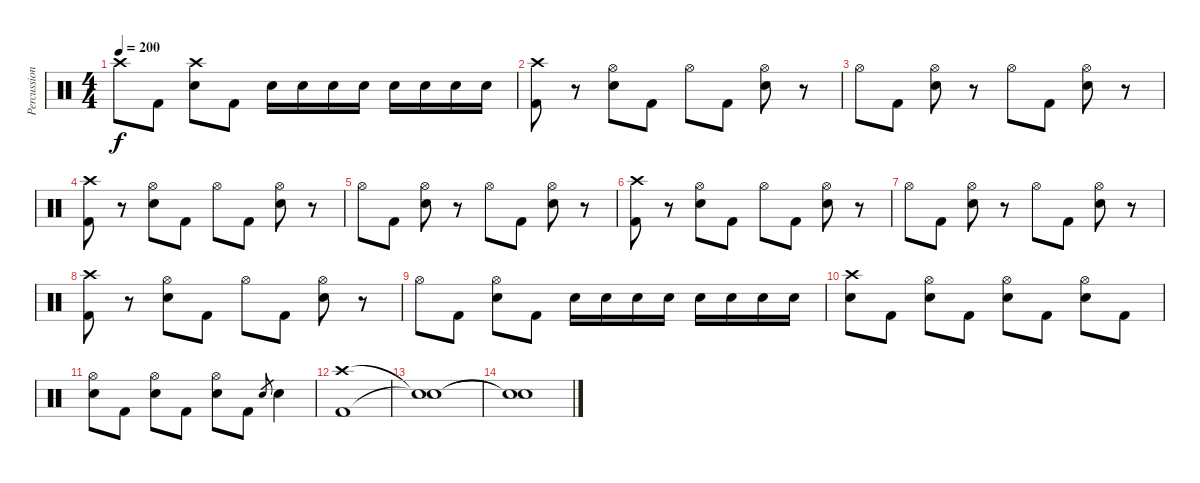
\track ("Percussion" "Percussion") {instrument percussion}
\staff {score}
\articulation defaults
\ts (4 4)
\tempo 200
\clef neutral
\ks c "Crash high (hit)".8{dy f} "Kick (hit) 2".8
("Crash high (hit)" "Electric Snare (hit)").8 "Kick (hit) 2".8 "Electric Snare (hit)".16 "Electric Snare (hit)".16 "Electric Snare (hit)".16 "Electric Snare (hit)".16 "Electric Snare (hit)".16 "Electric Snare (hit)".16 "Electric Snare (hit)".16 "Electric Snare (hit)".16 |
("Crash high (hit)" "Kick (hit) 2").8 r.8 ("Hi-Hat (open)" "Electric Snare (hit)").8 "Kick (hit) 2".8 "Hi-Hat (open)".8 "Kick (hit) 2".8 ("Hi-Hat (open)" "Electric Snare (hit)").8 r.8 |
"Hi-Hat (open)".8 "Kick (hit) 2".8 ("Hi-Hat (open)" "Electric Snare (hit)").8 r.8 "Hi-Hat (open)".8 "Kick (hit) 2".8 ("Hi-Hat (open)" "Electric Snare (hit)").8 r.8 |
("Crash high (hit)" "Kick (hit) 2").8 r.8 ("Hi-Hat (open)" "Electric Snare (hit)").8 "Kick (hit) 2".8 "Hi-Hat (open)".8 "Kick (hit) 2".8 ("Hi-Hat (open)" "Electric Snare (hit)").8 r.8 |
"Hi-Hat (open)".8 "Kick (hit) 2".8 ("Hi-Hat (open)" "Electric Snare (hit)").8 r.8 "Hi-Hat (open)".8 "Kick (hit) 2".8 ("Hi-Hat (open)" "Electric Snare (hit)").8 r.8 |
("Crash high (hit)" "Kick (hit) 2").8 r.8 ("Hi-Hat (open)" "Electric Snare (hit)").8 "Kick (hit) 2".8 "Hi-Hat (open)".8 "Kick (hit) 2".8 ("Hi-Hat (open)" "Electric Snare (hit)").8 r.8 |
"Hi-Hat (open)".8 "Kick (hit) 2".8 ("Hi-Hat (open)" "Electric Snare (hit)").8 r.8 "Hi-Hat (open)".8 "Kick (hit) 2".8 ("Hi-Hat (open)" "Electric Snare (hit)").8 r.8 |
("Crash high (hit)" "Kick (hit) 2").8 r.8 ("Hi-Hat (open)" "Electric Snare (hit)").8 "Kick (hit) 2".8 "Hi-Hat (open)".8 "Kick (hit) 2".8 ("Hi-Hat (open)" "Electric Snare (hit)").8 r.8 |
"Hi-Hat (open)".8 "Kick (hit) 2".8 ("Hi-Hat (open)" "Electric Snare (hit)").8 "Kick (hit) 2".8 "Electric Snare (hit)".16 "Electric Snare (hit)".16 "Electric Snare (hit)".16 "Electric Snare (hit)".16 "Electric Snare (hit)".16 "Electric Snare (hit)".16 "Electric Snare (hit)".16 "Electric Snare (hit)".16 |
("Crash high (hit)" "Electric Snare (hit)").8 "Kick (hit) 2".8 ("Hi-Hat (open)" "Electric Snare (hit)").8 "Kick (hit) 2".8 ("Hi-Hat (open)" "Electric Snare (hit)").8 "Kick (hit) 2".8 ("Hi-Hat (open)" "Electric Snare (hit)").8 "Kick (hit) 2".8 |
("Hi-Hat (open)" "Electric Snare (hit)").8 "Kick (hit) 2".8 ("Hi-Hat (open)" "Electric Snare (hit)").8 "Kick (hit) 2".8 ("Hi-Hat (open)" "Electric Snare (hit)").8 "Kick (hit) 2".8 "Electric Snare (hit)".8{gr} "Electric Snare (hit)".4 |
("Crash high (hit)" "Kick (hit) 2").1 |
("Snare (hit)"{t} "Snare (hit)"{t}).1 |
("Snare (hit)"{t} "Snare (hit)"{t}).1
